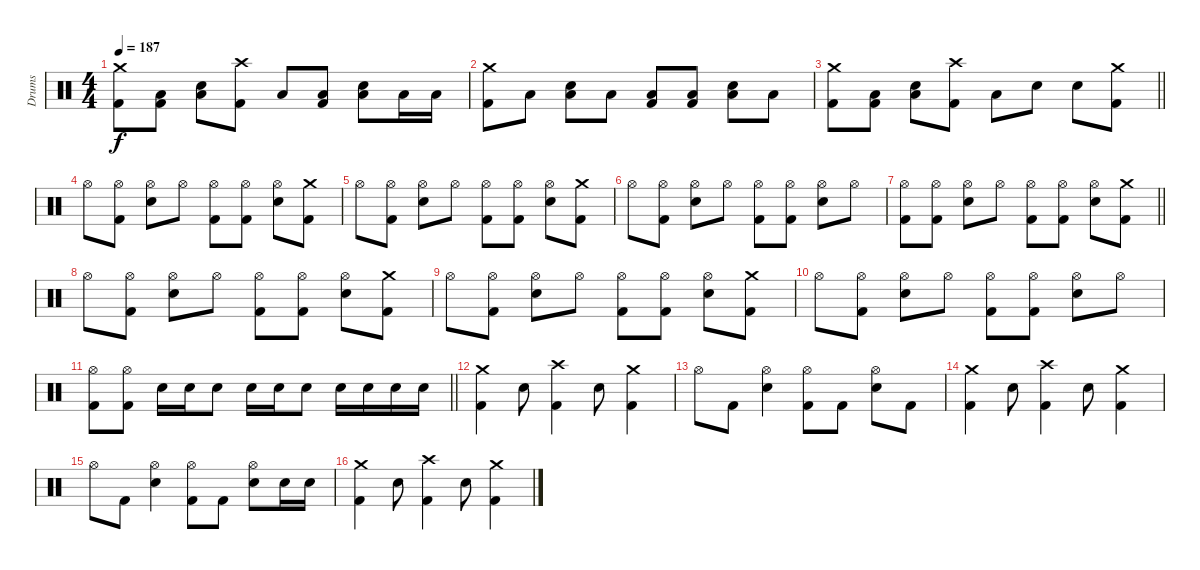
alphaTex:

\track ("Drums" "Drums") {instrument percussion}
\staff {score}
\articulation defaults
\ts (4 4)
\tempo 187
\clef neutral
\ks c
("Crash medium (hit)" "Kick (hit) 2").8{dy f} ("Low Floor Tom (hit)" "Kick (hit) 2").8 ("Electric Snare (hit)" "Low Floor Tom (hit)").8 ("Crash high (hit)" "Kick (hit) 2").8 "Low Floor Tom (hit)".8 ("Low Floor Tom (hit)" "Kick (hit) 2").8 ("Electric Snare (hit)" "Low Floor Tom (hit)").8 "Low Floor Tom (hit)".16 "Low Floor Tom (hit)".16 |
("Crash medium (hit)" "Kick (hit) 2").8 "Low Floor Tom (hit)".8 ("Electric Snare (hit)" "Low Floor Tom (hit)").8 "Low Floor Tom (hit)".8 ("Low Floor Tom (hit)" "Kick (hit) 2").8 ("Low Floor Tom (hit)" "Kick (hit) 2").8 ("Electric Snare (hit)" "Low Floor Tom (hit)").8 "Low Floor Tom (hit)".8 |
\barLineRight lightlight
("Crash medium (hit)" "Kick (hit) 2").8 ("Low Floor Tom (hit)" "Kick (hit) 2").8 ("Electric Snare (hit)" "Low Floor Tom (hit)").8 ("Crash high (hit)" "Kick (hit) 2").8 "Low Floor Tom (hit)".8 "Electric Snare (hit)".8 "Electric Snare (hit)".8 ("Crash medium (hit)" "Kick (hit) 2").8 |
"Hi-Hat (open)".8 ("Hi-Hat (open)" "Kick (hit) 2").8 ("Hi-Hat (open)" "Electric Snare (hit)").8 "Hi-Hat (open)".8 ("Hi-Hat (open)" "Kick (hit) 2").8 ("Hi-Hat (open)" "Kick (hit) 2").8 ("Hi-Hat (open)" "Electric Snare (hit)").8 ("Crash medium (hit)" "Kick (hit) 2").8 |
"Hi-Hat (open)".8 ("Hi-Hat (open)" "Kick (hit) 2").8 ("Hi-Hat (open)" "Electric Snare (hit)").8 "Hi-Hat (open)".8 ("Hi-Hat (open)" "Kick (hit) 2").8 ("Hi-Hat (open)" "Kick (hit) 2").8 ("Hi-Hat (open)" "Electric Snare (hit)").8 ("Crash medium (hit)" "Kick (hit) 2").8 |
"Hi-Hat (open)".8 ("Hi-Hat (open)" "Kick (hit) 2").8 ("Hi-Hat (open)" "Electric Snare (hit)").8 "Hi-Hat (open)".8 ("Hi-Hat (open)" "Kick (hit) 2").8 ("Hi-Hat (open)" "Kick (hit) 2").8 ("Hi-Hat (open)" "Electric Snare (hit)").8 "Hi-Hat (open)".8 |
\barLineRight lightlight
("Hi-Hat (open)" "Kick (hit) 2").8 ("Hi-Hat (open)" "Kick (hit) 2").8 ("Hi-Hat (open)" "Electric Snare (hit)").8 "Hi-Hat (open)".8 ("Hi-Hat (open)" "Kick (hit) 2").8 ("Hi-Hat (open)" "Kick (hit) 2").8 ("Hi-Hat (open)" "Electric Snare (hit)").8 ("Crash medium (hit)" "Kick (hit) 2").8 |
"Hi-Hat (open)".8 ("Hi-Hat (open)" "Kick (hit) 2").8 ("Hi-Hat (open)" "Electric Snare (hit)").8 "Hi-Hat (open)".8 ("Hi-Hat (open)" "Kick (hit) 2").8 ("Hi-Hat (open)" "Kick (hit) 2").8 ("Hi-Hat (open)" "Electric Snare (hit)").8 ("Crash medium (hit)" "Kick (hit) 2").8 |
"Hi-Hat (open)".8 ("Hi-Hat (open)" "Kick (hit) 2").8 ("Hi-Hat (open)" "Electric Snare (hit)").8 "Hi-Hat (open)".8 ("Hi-Hat (open)" "Kick (hit) 2").8 ("Hi-Hat (open)" "Kick (hit) 2").8 ("Hi-Hat (open)" "Electric Snare (hit)").8 ("Crash medium (hit)" "Kick (hit) 2").8 |
"Hi-Hat (open)".8 ("Hi-Hat (open)" "Kick (hit) 2").8 ("Hi-Hat (open)" "Electric Snare (hit)").8 "Hi-Hat (open)".8 ("Hi-Hat (open)" "Kick (hit) 2").8 ("Hi-Hat (open)" "Kick (hit) 2").8 ("Hi-Hat (open)" "Electric Snare (hit)").8 "Hi-Hat (open)".8 |
\barLineRight lightlight
("Hi-Hat (open)" "Kick (hit) 2").8 ("Hi-Hat (open)" "Kick (hit) 2").8 "Electric Snare (hit)".16 "Electric Snare (hit)".16 "Electric Snare (hit)".8 "Electric Snare (hit)".16 "Electric Snare (hit)".16 "Electric Snare (hit)".8 "Electric Snare (hit)".16 "Electric Snare (hit)".16 "Electric Snare (hit)".16 "Electric Snare (hit)".16 |
("Crash medium (hit)" "Kick (hit) 2").4 "Electric Snare (hit)".8 ("Crash high (hit)" "Kick (hit) 2").4 "Electric Snare (hit)".8 ("Crash medium (hit)" "Kick (hit) 2").4 |
"Hi-Hat (open)".8 "Kick (hit) 2".8 ("Hi-Hat (open)" "Electric Snare (hit)").4 ("Hi-Hat (open)" "Kick (hit) 2").8 "Kick (hit) 2".8 ("Hi-Hat (open)" "Electric Snare (hit)").8 "Kick (hit) 2".8 |
("Crash medium (hit)" "Kick (hit) 2").4 "Electric Snare (hit)".8 ("Crash high (hit)" "Kick (hit) 2").4 "Electric Snare (hit)".8 ("Crash medium (hit)" "Kick (hit) 2").4 |
"Hi-Hat (open)".8 "Kick (hit) 2".8 ("Hi-Hat (open)" "Electric Snare (hit)").4 ("Hi-Hat (open)" "Kick (hit) 2").8 "Kick (hit) 2".8 ("Hi-Hat (open)" "Electric Snare (hit)").8 "Electric Snare (hit)".16 "Electric Snare (hit)".16 |
("Crash medium (hit)" "Kick (hit) 2").4 "Electric Snare (hit)".8 ("Crash high (hit)" "Kick (hit) 2").4 "Electric Snare (hit)".8 ("Crash medium (hit)" "Kick (hit) 2").4
